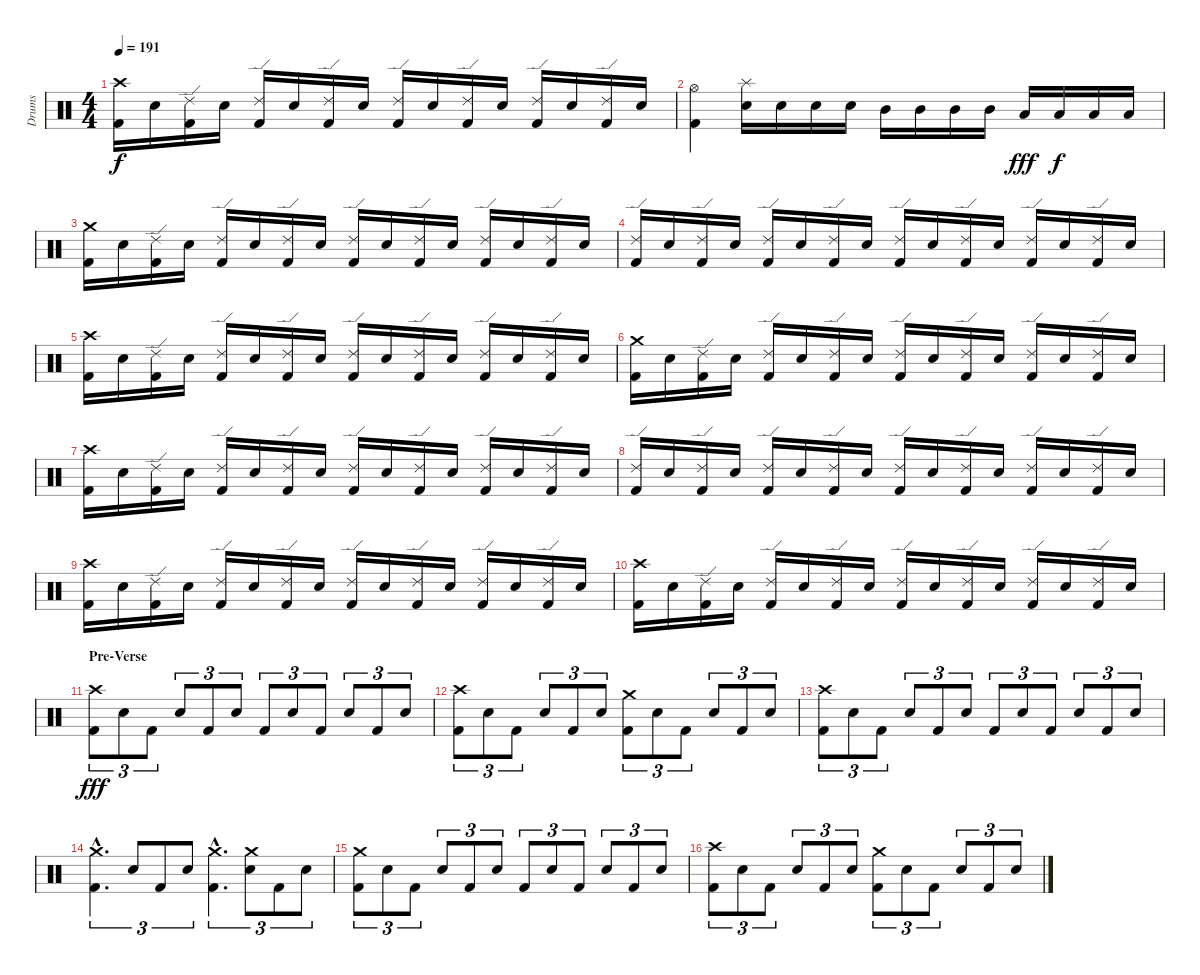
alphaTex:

\track ("Drums" "Drums") {instrument percussion}
\staff {score}
\articulation defaults
\ts (4 4)
\tempo 191
\clef neutral
\ks c
("Crash high (hit)" "Kick (hit) 2").16{dy f} "Electric Snare (hit)".16 ("Ride (edge) 2" "Kick (hit) 2").16 "Electric Snare (hit)".16 ("Ride (edge) 2" "Kick (hit) 2").16 "Electric Snare (hit)".16 ("Ride (edge) 2" "Kick (hit) 2").16 "Electric Snare (hit)".16 ("Ride (edge) 2" "Kick (hit) 2").16 "Electric Snare (hit)".16 ("Ride (edge) 2" "Kick (hit) 2").16 "Electric Snare (hit)".16 ("Ride (edge) 2" "Kick (hit) 2").16 "Electric Snare (hit)".16 ("Ride (edge) 2" "Kick (hit) 2").16 "Electric Snare (hit)".16 |
("Hi-Hat (open)" "Kick (hit) 2").4 ("Splash (hit)" "Electric Snare (hit)").16 "Electric Snare (hit)".16 "Electric Snare (hit)".16 "Electric Snare (hit)".16 "Mid Tom (hit)".16 "Mid Tom (hit)".16 "Mid Tom (hit)".16 "Mid Tom (hit)".16 "Low Tom (hit)".16{dy fff} "Low Tom (hit)".16{dy f} "Low Tom (hit)".16 "Low Tom (hit)".16 |
("Crash medium (hit)" "Kick (hit) 2").16 "Electric Snare (hit)".16 ("Ride (edge) 2" "Kick (hit) 2").16 "Electric Snare (hit)".16 ("Ride (edge) 2" "Kick (hit) 2").16 "Electric Snare (hit)".16 ("Ride (edge) 2" "Kick (hit) 2").16 "Electric Snare (hit)".16 ("Ride (edge) 2" "Kick (hit) 2").16 "Electric Snare (hit)".16 ("Ride (edge) 2" "Kick (hit) 2").16 "Electric Snare (hit)".16 ("Ride (edge) 2" "Kick (hit) 2").16 "Electric Snare (hit)".16 ("Ride (edge) 2" "Kick (hit) 2").16 "Electric Snare (hit)".16 |
("Ride (edge) 2" "Kick (hit) 2").16 "Electric Snare (hit)".16 ("Ride (edge) 2" "Kick (hit) 2").16 "Electric Snare (hit)".16 ("Ride (edge) 2" "Kick (hit) 2").16 "Electric Snare (hit)".16 ("Ride (edge) 2" "Kick (hit) 2").16 "Electric Snare (hit)".16 ("Ride (edge) 2" "Kick (hit) 2").16 "Electric Snare (hit)".16 ("Ride (edge) 2" "Kick (hit) 2").16 "Electric Snare (hit)".16 ("Ride (edge) 2" "Kick (hit) 2").16 "Electric Snare (hit)".16 ("Ride (edge) 2" "Kick (hit) 2").16 "Electric Snare (hit)".16 |
("Crash high (hit)" "Kick (hit) 2").16 "Electric Snare (hit)".16 ("Ride (edge) 2" "Kick (hit) 2").16 "Electric Snare (hit)".16 ("Ride (edge) 2" "Kick (hit) 2").16 "Electric Snare (hit)".16 ("Ride (edge) 2" "Kick (hit) 2").16 "Electric Snare (hit)".16 ("Ride (edge) 2" "Kick (hit) 2").16 "Electric Snare (hit)".16 ("Ride (edge) 2" "Kick (hit) 2").16 "Electric Snare (hit)".16 ("Ride (edge) 2" "Kick (hit) 2").16 "Electric Snare (hit)".16 ("Ride (edge) 2" "Kick (hit) 2").16 "Electric Snare (hit)".16 |
("Crash medium (hit)" "Kick (hit) 2").16 "Electric Snare (hit)".16 ("Ride (edge) 2" "Kick (hit) 2").16 "Electric Snare (hit)".16 ("Ride (edge) 2" "Kick (hit) 2").16 "Electric Snare (hit)".16 ("Ride (edge) 2" "Kick (hit) 2").16 "Electric Snare (hit)".16 ("Ride (edge) 2" "Kick (hit) 2").16 "Electric Snare (hit)".16 ("Ride (edge) 2" "Kick (hit) 2").16 "Electric Snare (hit)".16 ("Ride (edge) 2" "Kick (hit) 2").16 "Electric Snare (hit)".16 ("Ride (edge) 2" "Kick (hit) 2").16 "Electric Snare (hit)".16 |
("Crash high (hit)" "Kick (hit) 2").16 "Electric Snare (hit)".16 ("Ride (edge) 2" "Kick (hit) 2").16 "Electric Snare (hit)".16 ("Ride (edge) 2" "Kick (hit) 2").16 "Electric Snare (hit)".16 ("Ride (edge) 2" "Kick (hit) 2").16 "Electric Snare (hit)".16 ("Ride (edge) 2" "Kick (hit) 2").16 "Electric Snare (hit)".16 ("Ride (edge) 2" "Kick (hit) 2").16 "Electric Snare (hit)".16 ("Ride (edge) 2" "Kick (hit) 2").16 "Electric Snare (hit)".16 ("Ride (edge) 2" "Kick (hit) 2").16 "Electric Snare (hit)".16 |
("Ride (edge) 2" "Kick (hit) 2").16 "Electric Snare (hit)".16 ("Ride (edge) 2" "Kick (hit) 2").16 "Electric Snare (hit)".16 ("Ride (edge) 2" "Kick (hit) 2").16 "Electric Snare (hit)".16 ("Ride (edge) 2" "Kick (hit) 2").16 "Electric Snare (hit)".16 ("Ride (edge) 2" "Kick (hit) 2").16 "Electric Snare (hit)".16 ("Ride (edge) 2" "Kick (hit) 2").16 "Electric Snare (hit)".16 ("Ride (edge) 2" "Kick (hit) 2").16 "Electric Snare (hit)".16 ("Ride (edge) 2" "Kick (hit) 2").16 "Electric Snare (hit)".16 |
("Crash high (hit)" "Kick (hit) 2").16 "Electric Snare (hit)".16 ("Ride (edge) 2" "Kick (hit) 2").16 "Electric Snare (hit)".16 ("Ride (edge) 2" "Kick (hit) 2").16 "Electric Snare (hit)".16 ("Ride (edge) 2" "Kick (hit) 2").16 "Electric Snare (hit)".16 ("Ride (edge) 2" "Kick (hit) 2").16 "Electric Snare (hit)".16 ("Ride (edge) 2" "Kick (hit) 2").16 "Electric Snare (hit)".16 ("Ride (edge) 2" "Kick (hit) 2").16 "Electric Snare (hit)".16 ("Ride (edge) 2" "Kick (hit) 2").16 "Electric Snare (hit)".16 |
("Crash high (hit)" "Kick (hit) 2").16 "Electric Snare (hit)".16 ("Ride (edge) 2" "Kick (hit) 2").16 "Electric Snare (hit)".16 ("Ride (edge) 2" "Kick (hit) 2").16 "Electric Snare (hit)".16 ("Ride (edge) 2" "Kick (hit) 2").16 "Electric Snare (hit)".16 ("Ride (edge) 2" "Kick (hit) 2").16 "Electric Snare (hit)".16 ("Ride (edge) 2" "Kick (hit) 2").16 "Electric Snare (hit)".16 ("Ride (edge) 2" "Kick (hit) 2").16 "Electric Snare (hit)".16 ("Ride (edge) 2" "Kick (hit) 2").16 "Electric Snare (hit)".16 |
\section ("" "Pre-Verse")
("Crash high (hit)" "Kick (hit) 2").8{tu (3 2) dy fff} "Electric Snare (hit)".8{tu (3 2)} "Kick (hit) 2".8{tu (3 2)} "Electric Snare (hit)".8{tu (3 2)} "Kick (hit) 2".8{tu (3 2)} "Electric Snare (hit)".8{tu (3 2)} "Kick (hit) 2".8{tu (3 2)} "Electric Snare (hit)".8{tu (3 2)} "Kick (hit) 2".8{tu (3 2)} "Electric Snare (hit)".8{tu (3 2)} "Kick (hit) 2".8{tu (3 2)} "Electric Snare (hit)".8{tu (3 2)} |
("Crash high (hit)" "Kick (hit) 2").8{tu (3 2)} "Electric Snare (hit)".8{tu (3 2)} "Kick (hit) 2".8{tu (3 2)} "Electric Snare (hit)".8{tu (3 2)} "Kick (hit) 2".8{tu (3 2)} "Electric Snare (hit)".8{tu (3 2)} ("Crash medium (hit)" "Kick (hit) 2").8{tu (3 2)} "Electric Snare (hit)".8{tu (3 2)} "Kick (hit) 2".8{tu (3 2)} "Electric Snare (hit)".8{tu (3 2)} "Kick (hit) 2".8{tu (3 2)} "Electric Snare (hit)".8{tu (3 2)} |
("Crash high (hit)" "Kick (hit) 2").8{tu (3 2)} "Electric Snare (hit)".8{tu (3 2)} "Kick (hit) 2".8{tu (3 2)} "Electric Snare (hit)".8{tu (3 2)} "Kick (hit) 2".8{tu (3 2)} "Electric Snare (hit)".8{tu (3 2)} "Kick (hit) 2".8{tu (3 2)} "Electric Snare (hit)".8{tu (3 2)} "Kick (hit) 2".8{tu (3 2)} "Electric Snare (hit)".8{tu (3 2)} "Kick (hit) 2".8{tu (3 2)} "Electric Snare (hit)".8{tu (3 2)} |
("Crash medium (hit)"{hac} "Kick (hit) 2"{hac}).4{d tu (3 2)} "Electric Snare (hit)".8{tu (3 2)} "Kick (hit) 2".8{tu (3 2)} "Electric Snare (hit)".8{tu (3 2)} ("Crash medium (hit)"{hac} "Kick (hit) 2"{hac}).4{d tu (3 2)} ("Crash medium (hit)" "Electric Snare (hit)").8{tu (3 2)} "Kick (hit) 2".8{tu (3 2)} "Electric Snare (hit)".8{tu (3 2)} |
("Crash medium (hit)" "Kick (hit) 2").8{tu (3 2)} "Electric Snare (hit)".8{tu (3 2)} "Kick (hit) 2".8{tu (3 2)} "Electric Snare (hit)".8{tu (3 2)} "Kick (hit) 2".8{tu (3 2)} "Electric Snare (hit)".8{tu (3 2)} "Kick (hit) 2".8{tu (3 2)} "Electric Snare (hit)".8{tu (3 2)} "Kick (hit) 2".8{tu (3 2)} "Electric Snare (hit)".8{tu (3 2)} "Kick (hit) 2".8{tu (3 2)} "Electric Snare (hit)".8{tu (3 2)} |
("Crash high (hit)" "Kick (hit) 2").8{tu (3 2)} "Electric Snare (hit)".8{tu (3 2)} "Kick (hit) 2".8{tu (3 2)} "Electric Snare (hit)".8{tu (3 2)} "Kick (hit) 2".8{tu (3 2)} "Electric Snare (hit)".8{tu (3 2)} ("Crash medium (hit)" "Kick (hit) 2").8{tu (3 2)} "Electric Snare (hit)".8{tu (3 2)} "Kick (hit) 2".8{tu (3 2)} "Electric Snare (hit)".8{tu (3 2)} "Kick (hit) 2".8{tu (3 2)} "Electric Snare (hit)".8{tu (3 2)}
